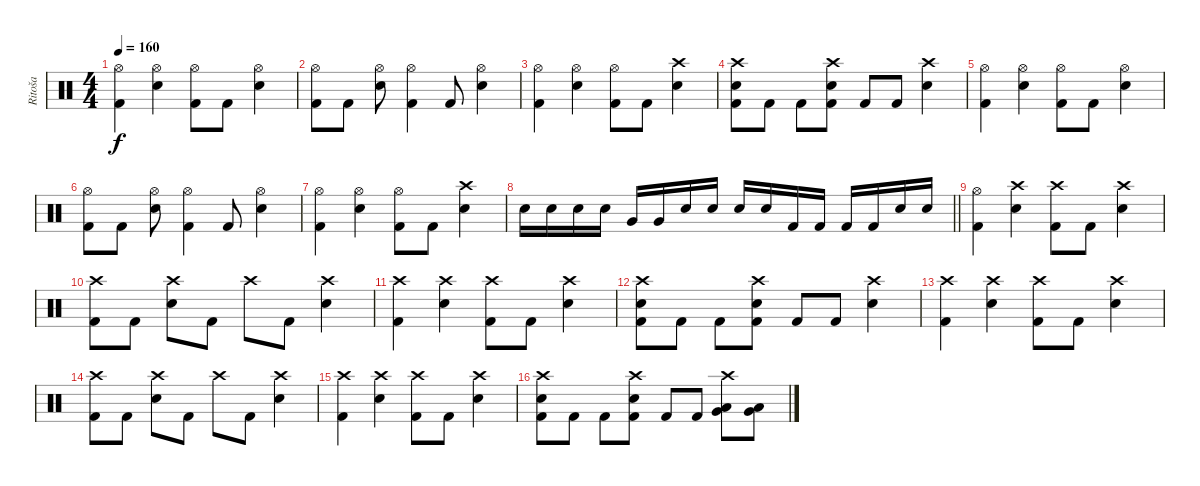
\track ("Ritoša" "Ritoša") {instrument percussion}
\staff {score}
\articulation defaults
\ts (4 4)
\tempo 160
\clef neutral
\ks c
("Hi-Hat (open)" "Kick (hit) 2").4{dy f} ("Hi-Hat (open)" "Electric Snare (hit)").4 ("Hi-Hat (open)" "Kick (hit) 2").8 "Kick (hit) 2".8 ("Hi-Hat (open)" "Electric Snare (hit)").4 |
("Hi-Hat (open)" "Kick (hit) 2").8 "Kick (hit) 2".8 ("Hi-Hat (open)" "Electric Snare (hit)").8 ("Hi-Hat (open)" "Kick (hit) 2").4 "Kick (hit) 2".8 ("Hi-Hat (open)" "Electric Snare (hit)").4 |
("Hi-Hat (open)" "Kick (hit) 2").4 ("Hi-Hat (open)" "Electric Snare (hit)").4 ("Hi-Hat (open)" "Kick (hit) 2").8 "Kick (hit) 2".8 ("Crash high (hit)" "Electric Snare (hit)").4 |
("Crash high (hit)" "Electric Snare (hit)" "Kick (hit) 2").8 "Kick (hit) 2".8 "Kick (hit) 2".8 ("Crash high (hit)" "Electric Snare (hit)" "Kick (hit) 2").8 "Kick (hit) 2".8 "Kick (hit) 2".8 ("Crash high (hit)" "Electric Snare (hit)").4 |
("Hi-Hat (open)" "Kick (hit) 2").4 ("Hi-Hat (open)" "Electric Snare (hit)").4 ("Hi-Hat (open)" "Kick (hit) 2").8 "Kick (hit) 2".8 ("Hi-Hat (open)" "Electric Snare (hit)").4 |
("Hi-Hat (open)" "Kick (hit) 2").8 "Kick (hit) 2".8 ("Hi-Hat (open)" "Electric Snare (hit)").8 ("Hi-Hat (open)" "Kick (hit) 2").4 "Kick (hit) 2".8 ("Hi-Hat (open)" "Electric Snare (hit)").4 |
("Hi-Hat (open)" "Kick (hit) 2").4 ("Hi-Hat (open)" "Electric Snare (hit)").4 ("Hi-Hat (open)" "Kick (hit) 2").8 "Kick (hit) 2".8 ("Crash high (hit)" "Electric Snare (hit)").4 |
\barLineRight lightlight "Electric Snare (hit)".16 "Electric Snare (hit)".16 "Electric Snare (hit)".16 "Electric Snare (hit)".16 "Very Low Tom (hit)".16 "Very Low Tom (hit)".16 "Electric Snare (hit)".16 "Electric Snare (hit)".16 "Electric Snare (hit)".16 "Electric Snare (hit)".16 "Kick (hit) 2".16 "Kick (hit) 2".16 "Kick (hit) 2".16 "Kick (hit) 2".16 "Electric Snare (hit)".16 "Electric Snare (hit)".16
|
("Hi-Hat (open)" "Kick (hit) 2").4 ("Crash high (hit)" "Electric Snare (hit)").4 ("Crash high (hit)" "Kick (hit) 2").8 "Kick (hit) 2".8 ("Crash high (hit)" "Electric Snare (hit)").4 |
("Crash high (hit)" "Kick (hit) 2").8 "Kick (hit) 2".8 ("Crash high (hit)" "Electric Snare (hit)").8 "Kick (hit) 2".8 "Crash high (hit)".8 "Kick (hit) 2".8 ("Crash high (hit)" "Electric Snare (hit)").4 |
("Crash high (hit)" "Kick (hit) 2").4 ("Crash high (hit)" "Electric Snare (hit)").4 ("Crash high (hit)" "Kick (hit) 2").8 "Kick (hit) 2".8 ("Crash high (hit)" "Electric Snare (hit)").4 |
("Crash high (hit)" "Electric Snare (hit)" "Kick (hit) 2").8 "Kick (hit) 2".8 "Kick (hit) 2".8 ("Crash high (hit)" "Electric Snare (hit)" "Kick (hit) 2").8 "Kick (hit) 2".8 "Kick (hit) 2".8 ("Crash high (hit)" "Electric Snare (hit)").4 |
("Crash high (hit)" "Kick (hit) 2").4 ("Crash high (hit)" "Electric Snare (hit)").4 ("Crash high (hit)" "Kick (hit) 2").8 "Kick (hit) 2".8 ("Crash high (hit)" "Electric Snare (hit)").4 |
("Crash high (hit)" "Kick (hit) 2").8 "Kick (hit) 2".8 ("Crash high (hit)" "Electric Snare (hit)").8 "Kick (hit) 2".8 "Crash high (hit)".8 "Kick (hit) 2".8 ("Crash high (hit)" "Electric Snare (hit)").4 |
("Crash high (hit)" "Kick (hit) 2").4 ("Crash high (hit)" "Electric Snare (hit)").4 ("Crash high (hit)" "Kick (hit) 2").8 "Kick (hit) 2".8 ("Crash high (hit)" "Electric Snare (hit)").4 |
("Crash high (hit)" "Electric Snare (hit)" "Kick (hit) 2").8 "Kick (hit) 2".8 "Kick (hit) 2".8 ("Crash high (hit)" "Electric Snare (hit)" "Kick (hit) 2").8 "Kick (hit) 2".8 "Kick (hit) 2".8 ("Crash high (hit)" "Low Tom (hit)" "Very Low Tom (hit)").8 ("Low Tom (hit)" "Very Low Tom (hit)").8
